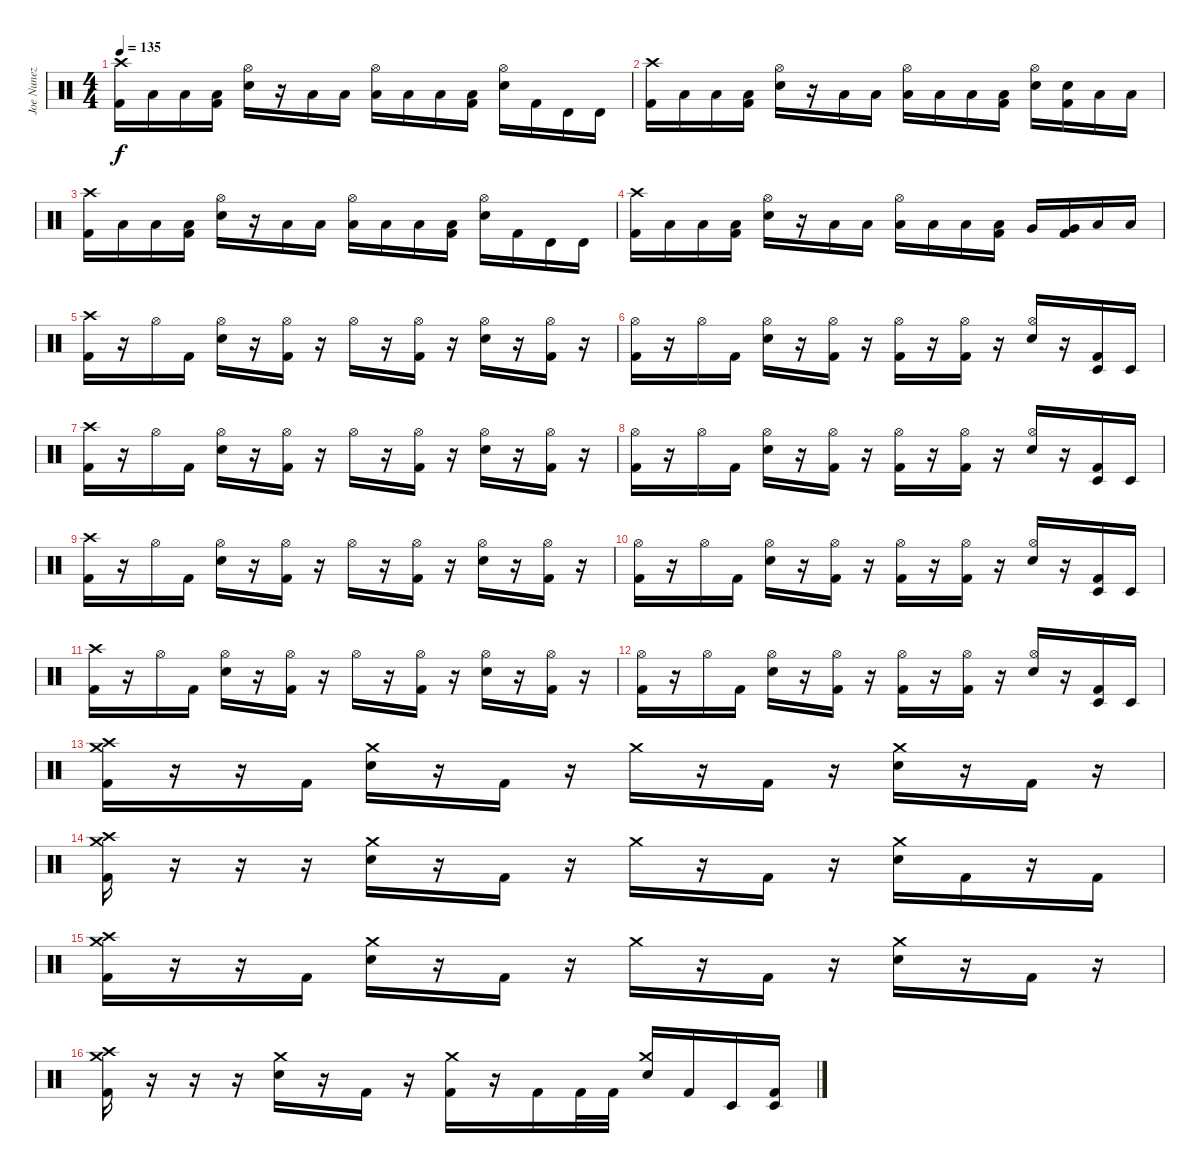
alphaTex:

\track ("Joe Nunez" "Joe Nunez") {instrument percussion}
\staff {score}
\articulation defaults
\ts (4 4)
\tempo 135
\clef neutral
\ks c
("Crash high (hit)" "Kick (hit) 2").16{dy f} "Low Tom (hit)".16 "Low Tom (hit)".16 ("Low Tom (hit)" "Kick (hit) 2").16 ("Hi-Hat (open)" "Electric Snare (hit)").16 r.16 "Low Tom (hit)".16 "Low Tom (hit)".16 ("Hi-Hat (open)" "Low Tom (hit)").16 "Low Tom (hit)".16 "Low Tom (hit)".16 ("Low Tom (hit)" "Kick (hit) 2").16 ("Hi-Hat (open)" "Electric Snare (hit)").16 "Kick (hit) 2".16 "Timbale high (hit)".16 "Timbale high (hit)".16 |
("Crash high (hit)" "Kick (hit) 2").16 "Low Tom (hit)".16 "Low Tom (hit)".16 ("Low Tom (hit)" "Kick (hit) 2").16 ("Hi-Hat (open)" "Electric Snare (hit)").16 r.16 "Low Tom (hit)".16 "Low Tom (hit)".16 ("Hi-Hat (open)" "Low Tom (hit)").16 "Low Tom (hit)".16 "Low Tom (hit)".16 ("Low Tom (hit)" "Kick (hit) 2").16 ("Hi-Hat (open)" "Electric Snare (hit)").16 ("Electric Snare (hit)" "Kick (hit) 2").16 "Low Tom (hit)".16 "Low Tom (hit)".16 |
("Crash high (hit)" "Kick (hit) 2").16 "Low Tom (hit)".16 "Low Tom (hit)".16 ("Low Tom (hit)" "Kick (hit) 2").16 ("Hi-Hat (open)" "Electric Snare (hit)").16 r.16 "Low Tom (hit)".16 "Low Tom (hit)".16 ("Hi-Hat (open)" "Low Tom (hit)").16 "Low Tom (hit)".16 "Low Tom (hit)".16 ("Low Tom (hit)" "Kick (hit) 2").16 ("Hi-Hat (open)" "Electric Snare (hit)").16 "Kick (hit) 2".16 "Timbale high (hit)".16 "Timbale high (hit)".16 |
("Crash high (hit)" "Kick (hit) 2").16 "Low Tom (hit)".16 "Low Tom (hit)".16 ("Low Tom (hit)" "Kick (hit) 2").16 ("Hi-Hat (open)" "Electric Snare (hit)").16 r.16 "Low Tom (hit)".16 "Low Tom (hit)".16 ("Hi-Hat (open)" "Low Tom (hit)").16 "Low Tom (hit)".16 "Low Tom (hit)".16 ("Low Tom (hit)" "Kick (hit) 2").16 "Very Low Tom (hit)".16 ("Very Low Tom (hit)" "Kick (hit) 2").16 "Low Floor Tom (hit)".16 "Low Floor Tom (hit)".16 |
("Crash high (hit)" "Kick (hit) 2").16 r.16 "Hi-Hat (open)".16 "Kick (hit) 2".16 ("Hi-Hat (open)" "Electric Snare (hit)").16 r.16 ("Hi-Hat (open)" "Kick (hit) 2").16 r.16 "Hi-Hat (open)".16 r.16 ("Hi-Hat (open)" "Kick (hit) 2").16 r.16 ("Hi-Hat (open)" "Electric Snare (hit)").16 r.16 ("Hi-Hat (open)" "Kick (hit) 2").16 r.16 |
("Hi-Hat (open)" "Kick (hit) 2").16 r.16 "Hi-Hat (open)".16 "Kick (hit) 2".16 ("Hi-Hat (open)" "Electric Snare (hit)").16 r.16 ("Hi-Hat (open)" "Kick (hit) 2").16 r.16 ("Hi-Hat (open)" "Kick (hit) 2").16 r.16 ("Hi-Hat (open)" "Kick (hit) 2").16 r.16 ("Hi-Hat (open)" "Electric Snare (hit)").16 r.16 ("Timbale low (hit)" "Kick (hit) 2").16 "Timbale low (hit)".16 |
("Crash high (hit)" "Kick (hit) 2").16 r.16 "Hi-Hat (open)".16 "Kick (hit) 2".16 ("Hi-Hat (open)" "Electric Snare (hit)").16 r.16 ("Hi-Hat (open)" "Kick (hit) 2").16 r.16 "Hi-Hat (open)".16 r.16 ("Hi-Hat (open)" "Kick (hit) 2").16 r.16 ("Hi-Hat (open)" "Electric Snare (hit)").16 r.16 ("Hi-Hat (open)" "Kick (hit) 2").16 r.16 |
("Hi-Hat (open)" "Kick (hit) 2").16 r.16 "Hi-Hat (open)".16 "Kick (hit) 2".16 ("Hi-Hat (open)" "Electric Snare (hit)").16 r.16 ("Hi-Hat (open)" "Kick (hit) 2").16 r.16 ("Hi-Hat (open)" "Kick (hit) 2").16 r.16 ("Hi-Hat (open)" "Kick (hit) 2").16 r.16 ("Hi-Hat (open)" "Electric Snare (hit)").16 r.16 ("Timbale low (hit)" "Kick (hit) 2").16 "Timbale low (hit)".16 |
("Crash high (hit)" "Kick (hit) 2").16 r.16 "Hi-Hat (open)".16 "Kick (hit) 2".16 ("Hi-Hat (open)" "Electric Snare (hit)").16 r.16 ("Hi-Hat (open)" "Kick (hit) 2").16 r.16 "Hi-Hat (open)".16 r.16 ("Hi-Hat (open)" "Kick (hit) 2").16 r.16 ("Hi-Hat (open)" "Electric Snare (hit)").16 r.16 ("Hi-Hat (open)" "Kick (hit) 2").16 r.16 |
("Hi-Hat (open)" "Kick (hit) 2").16 r.16 "Hi-Hat (open)".16 "Kick (hit) 2".16 ("Hi-Hat (open)" "Electric Snare (hit)").16 r.16 ("Hi-Hat (open)" "Kick (hit) 2").16 r.16 ("Hi-Hat (open)" "Kick (hit) 2").16 r.16 ("Hi-Hat (open)" "Kick (hit) 2").16 r.16 ("Hi-Hat (open)" "Electric Snare (hit)").16 r.16 ("Timbale low (hit)" "Kick (hit) 2").16 "Timbale low (hit)".16 |
("Crash high (hit)" "Kick (hit) 2").16 r.16 "Hi-Hat (open)".16 "Kick (hit) 2".16 ("Hi-Hat (open)" "Electric Snare (hit)").16 r.16 ("Hi-Hat (open)" "Kick (hit) 2").16 r.16 "Hi-Hat (open)".16 r.16 ("Hi-Hat (open)" "Kick (hit) 2").16 r.16 ("Hi-Hat (open)" "Electric Snare (hit)").16 r.16 ("Hi-Hat (open)" "Kick (hit) 2").16 r.16 |
("Hi-Hat (open)" "Kick (hit) 2").16 r.16 "Hi-Hat (open)".16 "Kick (hit) 2".16 ("Hi-Hat (open)" "Electric Snare (hit)").16 r.16 ("Hi-Hat (open)" "Kick (hit) 2").16 r.16 ("Hi-Hat (open)" "Kick (hit) 2").16 r.16 ("Hi-Hat (open)" "Kick (hit) 2").16 r.16 ("Hi-Hat (open)" "Electric Snare (hit)").16 r.16 ("Timbale low (hit)" "Kick (hit) 2").16 "Timbale low (hit)".16 |
("Crash high (hit)" "Crash medium (hit)" "Kick (hit) 2").16 r.16 r.16 "Kick (hit) 2".16 ("Crash medium (hit)" "Electric Snare (hit)").16 r.16 "Kick (hit) 2".16 r.16 "Crash medium (hit)".16 r.16 "Kick (hit) 2".16 r.16 ("Crash medium (hit)" "Electric Snare (hit)").16 r.16 "Kick (hit) 2".16 r.16 |
("Crash high (hit)" "Crash medium (hit)" "Kick (hit) 2").16 r.16 r.16 r.16 ("Crash medium (hit)" "Electric Snare (hit)").16 r.16 "Kick (hit) 2".16 r.16 "Crash medium (hit)".16 r.16 "Kick (hit) 2".16 r.16 ("Crash medium (hit)" "Electric Snare (hit)").16 "Kick (hit) 2".16 r.16 "Kick (hit) 2".16 |
("Crash high (hit)" "Crash medium (hit)" "Kick (hit) 2").16 r.16 r.16 "Kick (hit) 2".16 ("Crash medium (hit)" "Electric Snare (hit)").16 r.16 "Kick (hit) 2".16 r.16 "Crash medium (hit)".16 r.16 "Kick (hit) 2".16 r.16 ("Crash medium (hit)" "Electric Snare (hit)").16 r.16 "Kick (hit) 2".16 r.16 |
("Crash high (hit)" "Crash medium (hit)" "Kick (hit) 2").16 r.16 r.16 r.16 ("Crash medium (hit)" "Electric Snare (hit)").16 r.16 "Kick (hit) 2".16 r.16 ("Crash medium (hit)" "Kick (hit) 2").16 r.16 "Kick (hit) 2".16 "Kick (hit) 2".32 "Kick (hit) 2".32 ("Crash medium (hit)" "Electric Snare (hit)").16 "Kick (hit) 2".16 "Timbale low (hit)".16 ("Timbale low (hit)" "Kick (hit) 2").16
